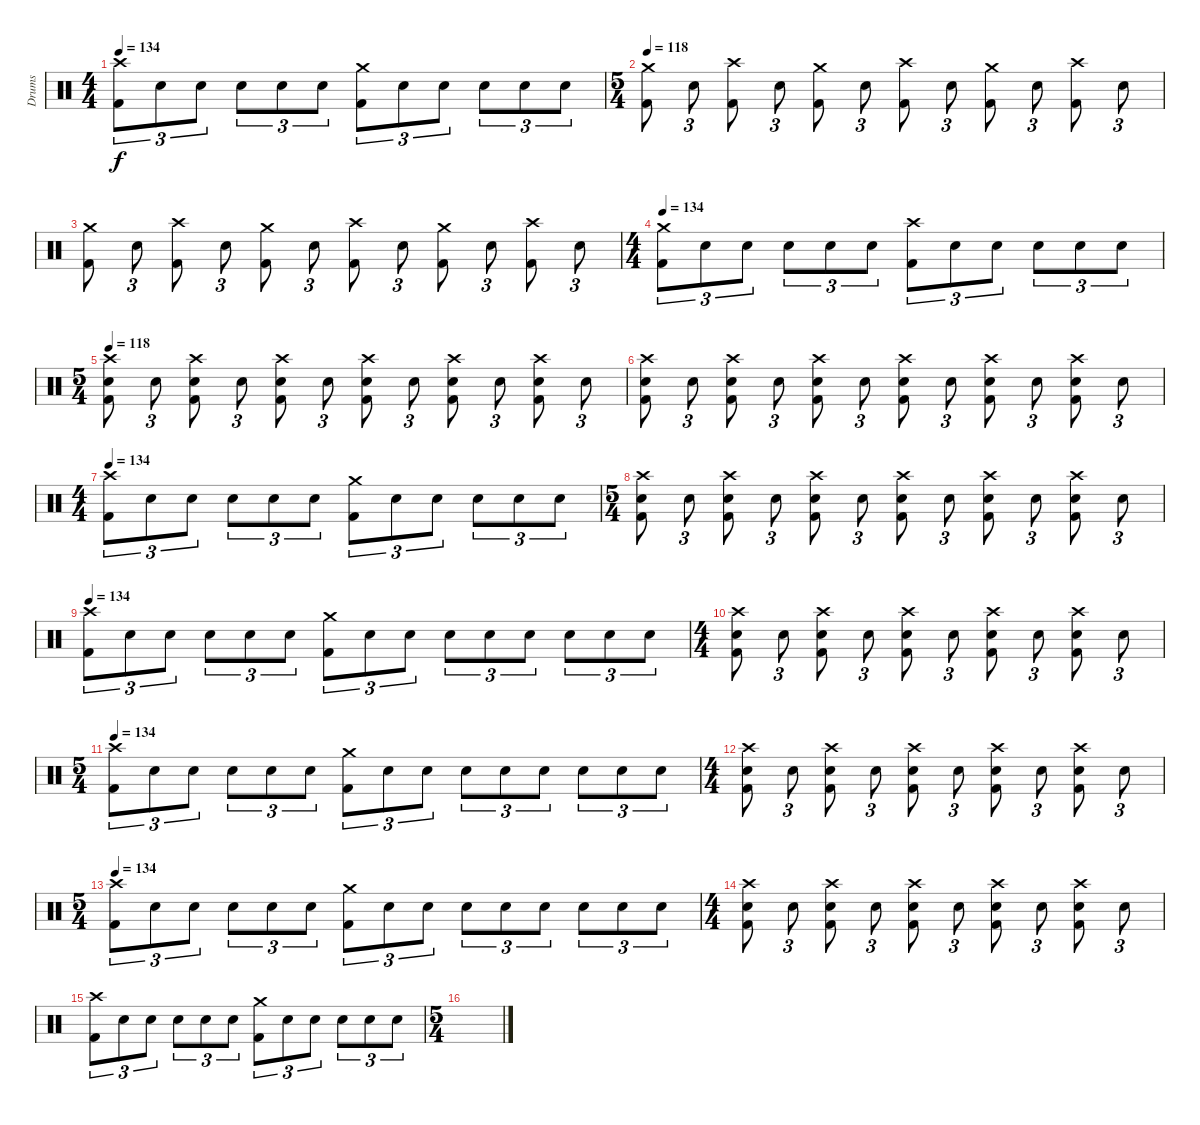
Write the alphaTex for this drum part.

\track ("Drums" "Drums") {instrument percussion}
\staff {score}
\articulation defaults
\ts (4 4)
\tempo 134
\clef neutral
\ks c
("Crash high (hit)" "Kick (hit) 2").8{tu (3 2) dy f} "Electric Snare (hit)".8{tu (3 2)} "Electric Snare (hit)".8{tu (3 2)} "Electric Snare (hit)".8{tu (3 2)} "Electric Snare (hit)".8{tu (3 2)} "Electric Snare (hit)".8{tu (3 2)} ("Crash medium (hit)" "Kick (hit) 2").8{tu (3 2)} "Electric Snare (hit)".8{tu (3 2)} "Electric Snare (hit)".8{tu (3 2)} "Electric Snare (hit)".8{tu (3 2)} "Electric Snare (hit)".8{tu (3 2)} "Electric Snare (hit)".8{tu (3 2)} |
\ts (5 4)
\tempo 118
("Crash medium (hit)" "Kick (hit) 2").8 "Electric Snare (hit)".8{tu (3 2)} ("Crash high (hit)" "Kick (hit) 2").8 "Electric Snare (hit)".8{tu (3 2)} ("Crash medium (hit)" "Kick (hit) 2").8 "Electric Snare (hit)".8{tu (3 2)} ("Crash high (hit)" "Kick (hit) 2").8 "Electric Snare (hit)".8{tu (3 2)} ("Crash medium (hit)" "Kick (hit) 2").8 "Electric Snare (hit)".8{tu (3 2)} ("Crash high (hit)" "Kick (hit) 2").8 "Electric Snare (hit)".8{tu (3 2)} |
("Crash medium (hit)" "Kick (hit) 2").8 "Electric Snare (hit)".8{tu (3 2)} ("Crash high (hit)" "Kick (hit) 2").8 "Electric Snare (hit)".8{tu (3 2)} ("Crash medium (hit)" "Kick (hit) 2").8 "Electric Snare (hit)".8{tu (3 2)} ("Crash high (hit)" "Kick (hit) 2").8 "Electric Snare (hit)".8{tu (3 2)} ("Crash medium (hit)" "Kick (hit) 2").8 "Electric Snare (hit)".8{tu (3 2)} ("Crash high (hit)" "Kick (hit) 2").8 "Electric Snare (hit)".8{tu (3 2)} |
\ts (4 4)
\tempo 134
("Crash medium (hit)" "Kick (hit) 2").8{tu (3 2)} "Electric Snare (hit)".8{tu (3 2)} "Electric Snare (hit)".8{tu (3 2)} "Electric Snare (hit)".8{tu (3 2)} "Electric Snare (hit)".8{tu (3 2)} "Electric Snare (hit)".8{tu (3 2)} ("Crash high (hit)" "Kick (hit) 2").8{tu (3 2)} "Electric Snare (hit)".8{tu (3 2)} "Electric Snare (hit)".8{tu (3 2)} "Electric Snare (hit)".8{tu (3 2)} "Electric Snare (hit)".8{tu (3 2)} "Electric Snare (hit)".8{tu (3 2)} |
\ts (5 4)
\tempo 118
("Crash high (hit)" "Electric Snare (hit)" "Kick (hit) 2").8 "Electric Snare (hit)".8{tu (3 2)} ("Crash high (hit)" "Electric Snare (hit)" "Kick (hit) 2").8 "Electric Snare (hit)".8{tu (3 2)} ("Crash high (hit)" "Electric Snare (hit)" "Kick (hit) 2").8 "Electric Snare (hit)".8{tu (3 2)} ("Crash high (hit)" "Electric Snare (hit)" "Kick (hit) 2").8 "Electric Snare (hit)".8{tu (3 2)} ("Crash high (hit)" "Electric Snare (hit)" "Kick (hit) 2").8 "Electric Snare (hit)".8{tu (3 2)} ("Crash high (hit)" "Electric Snare (hit)" "Kick (hit) 2").8 "Electric Snare (hit)".8{tu (3 2)} |
("Crash high (hit)" "Electric Snare (hit)" "Kick (hit) 2").8 "Electric Snare (hit)".8{tu (3 2)} ("Crash high (hit)" "Electric Snare (hit)" "Kick (hit) 2").8 "Electric Snare (hit)".8{tu (3 2)} ("Crash high (hit)" "Electric Snare (hit)" "Kick (hit) 2").8 "Electric Snare (hit)".8{tu (3 2)} ("Crash high (hit)" "Electric Snare (hit)" "Kick (hit) 2").8 "Electric Snare (hit)".8{tu (3 2)} ("Crash high (hit)" "Electric Snare (hit)" "Kick (hit) 2").8 "Electric Snare (hit)".8{tu (3 2)} ("Crash high (hit)" "Electric Snare (hit)" "Kick (hit) 2").8 "Electric Snare (hit)".8{tu (3 2)} |
\ts (4 4)
\tempo 134
("Crash high (hit)" "Kick (hit) 2").8{tu (3 2)} "Electric Snare (hit)".8{tu (3 2)} "Electric Snare (hit)".8{tu (3 2)} "Electric Snare (hit)".8{tu (3 2)} "Electric Snare (hit)".8{tu (3 2)} "Electric Snare (hit)".8{tu (3 2)} ("Crash medium (hit)" "Kick (hit) 2").8{tu (3 2)} "Electric Snare (hit)".8{tu (3 2)} "Electric Snare (hit)".8{tu (3 2)} "Electric Snare (hit)".8{tu (3 2)} "Electric Snare (hit)".8{tu (3 2)} "Electric Snare (hit)".8{tu (3 2)} |
\ts (5 4)
("Crash high (hit)" "Electric Snare (hit)" "Kick (hit) 2").8 "Electric Snare (hit)".8{tu (3 2)} ("Crash high (hit)" "Electric Snare (hit)" "Kick (hit) 2").8 "Electric Snare (hit)".8{tu (3 2)} ("Crash high (hit)" "Electric Snare (hit)" "Kick (hit) 2").8 "Electric Snare (hit)".8{tu (3 2)} ("Crash high (hit)" "Electric Snare (hit)" "Kick (hit) 2").8 "Electric Snare (hit)".8{tu (3 2)} ("Crash high (hit)" "Electric Snare (hit)" "Kick (hit) 2").8 "Electric Snare (hit)".8{tu (3 2)} ("Crash high (hit)" "Electric Snare (hit)" "Kick (hit) 2").8 "Electric Snare (hit)".8{tu (3 2)} |
\tempo 134
("Crash high (hit)" "Kick (hit) 2").8{tu (3 2)} "Electric Snare (hit)".8{tu (3 2)} "Electric Snare (hit)".8{tu (3 2)} "Electric Snare (hit)".8{tu (3 2)} "Electric Snare (hit)".8{tu (3 2)} "Electric Snare (hit)".8{tu (3 2)} ("Crash medium (hit)" "Kick (hit) 2").8{tu (3 2)} "Electric Snare (hit)".8{tu (3 2)} "Electric Snare (hit)".8{tu (3 2)} "Electric Snare (hit)".8{tu (3 2)} "Electric Snare (hit)".8{tu (3 2)} "Electric Snare (hit)".8{tu (3 2)} "Electric Snare (hit)".8{tu (3 2)} "Electric Snare (hit)".8{tu (3 2)} "Electric Snare (hit)".8{tu (3 2)} |
\ts (4 4)
("Crash high (hit)" "Electric Snare (hit)" "Kick (hit) 2").8 "Electric Snare (hit)".8{tu (3 2)} ("Crash high (hit)" "Electric Snare (hit)" "Kick (hit) 2").8 "Electric Snare (hit)".8{tu (3 2)} ("Crash high (hit)" "Electric Snare (hit)" "Kick (hit) 2").8 "Electric Snare (hit)".8{tu (3 2)} ("Crash high (hit)" "Electric Snare (hit)" "Kick (hit) 2").8 "Electric Snare (hit)".8{tu (3 2)} ("Crash high (hit)" "Electric Snare (hit)" "Kick (hit) 2").8 "Electric Snare (hit)".8{tu (3 2)} |
\ts (5 4)
\tempo 134
("Crash high (hit)" "Kick (hit) 2").8{tu (3 2)} "Electric Snare (hit)".8{tu (3 2)} "Electric Snare (hit)".8{tu (3 2)} "Electric Snare (hit)".8{tu (3 2)} "Electric Snare (hit)".8{tu (3 2)} "Electric Snare (hit)".8{tu (3 2)} ("Crash medium (hit)" "Kick (hit) 2").8{tu (3 2)} "Electric Snare (hit)".8{tu (3 2)} "Electric Snare (hit)".8{tu (3 2)} "Electric Snare (hit)".8{tu (3 2)} "Electric Snare (hit)".8{tu (3 2)} "Electric Snare (hit)".8{tu (3 2)} "Electric Snare (hit)".8{tu (3 2)} "Electric Snare (hit)".8{tu (3 2)} "Electric Snare (hit)".8{tu (3 2)} |
\ts (4 4)
("Crash high (hit)" "Electric Snare (hit)" "Kick (hit) 2").8 "Electric Snare (hit)".8{tu (3 2)} ("Crash high (hit)" "Electric Snare (hit)" "Kick (hit) 2").8 "Electric Snare (hit)".8{tu (3 2)} ("Crash high (hit)" "Electric Snare (hit)" "Kick (hit) 2").8 "Electric Snare (hit)".8{tu (3 2)} ("Crash high (hit)" "Electric Snare (hit)" "Kick (hit) 2").8 "Electric Snare (hit)".8{tu (3 2)} ("Crash high (hit)" "Electric Snare (hit)" "Kick (hit) 2").8 "Electric Snare (hit)".8{tu (3 2)} |
\ts (5 4)
\tempo 134
("Crash high (hit)" "Kick (hit) 2").8{tu (3 2)} "Electric Snare (hit)".8{tu (3 2)} "Electric Snare (hit)".8{tu (3 2)} "Electric Snare (hit)".8{tu (3 2)} "Electric Snare (hit)".8{tu (3 2)} "Electric Snare (hit)".8{tu (3 2)} ("Crash medium (hit)" "Kick (hit) 2").8{tu (3 2)} "Electric Snare (hit)".8{tu (3 2)} "Electric Snare (hit)".8{tu (3 2)} "Electric Snare (hit)".8{tu (3 2)} "Electric Snare (hit)".8{tu (3 2)} "Electric Snare (hit)".8{tu (3 2)} "Electric Snare (hit)".8{tu (3 2)} "Electric Snare (hit)".8{tu (3 2)} "Electric Snare (hit)".8{tu (3 2)} |
\ts (4 4)
("Crash high (hit)" "Electric Snare (hit)" "Kick (hit) 2").8 "Electric Snare (hit)".8{tu (3 2)} ("Crash high (hit)" "Electric Snare (hit)" "Kick (hit) 2").8 "Electric Snare (hit)".8{tu (3 2)} ("Crash high (hit)" "Electric Snare (hit)" "Kick (hit) 2").8 "Electric Snare (hit)".8{tu (3 2)} ("Crash high (hit)" "Electric Snare (hit)" "Kick (hit) 2").8 "Electric Snare (hit)".8{tu (3 2)} ("Crash high (hit)" "Electric Snare (hit)" "Kick (hit) 2").8 "Electric Snare (hit)".8{tu (3 2)} |
("Crash high (hit)" "Kick (hit) 2").8{tu (3 2)} "Electric Snare (hit)".8{tu (3 2)} "Electric Snare (hit)".8{tu (3 2)} "Electric Snare (hit)".8{tu (3 2)} "Electric Snare (hit)".8{tu (3 2)} "Electric Snare (hit)".8{tu (3 2)} ("Crash medium (hit)" "Kick (hit) 2").8{tu (3 2)} "Electric Snare (hit)".8{tu (3 2)} "Electric Snare (hit)".8{tu (3 2)} "Electric Snare (hit)".8{tu (3 2)} "Electric Snare (hit)".8{tu (3 2)} "Electric Snare (hit)".8{tu (3 2)} |
\ts (5 4)
